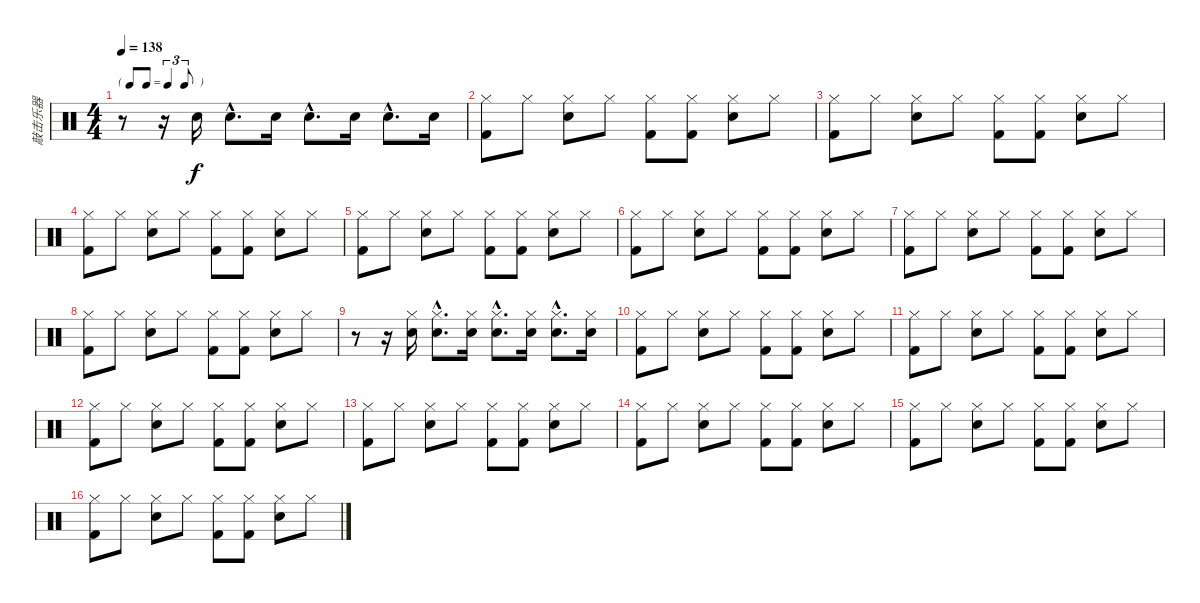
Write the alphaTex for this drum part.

\track ("敲击乐器" "敲击乐器") {instrument percussion}
\staff {score}
\articulation defaults
\ts (4 4)
\tf triplet8th
\tempo 138
\clef neutral
\ks c
r.8{dy f} r.16 "Electric Snare (hit)".16 "Electric Snare (hit)"{hac}.8{d} "Electric Snare (hit)".16 "Electric Snare (hit)"{hac}.8{d} "Electric Snare (hit)".16 "Electric Snare (hit)"{hac}.8{d} "Electric Snare (hit)".16 |
("Hi-Hat (closed)" "Kick (hit) 2").8 "Hi-Hat (closed)".8 ("Hi-Hat (closed)" "Electric Snare (hit)").8 "Hi-Hat (closed)".8 ("Hi-Hat (closed)" "Kick (hit) 2").8 ("Hi-Hat (closed)" "Kick (hit) 2").8 ("Hi-Hat (closed)" "Electric Snare (hit)").8 "Hi-Hat (closed)".8 |
("Hi-Hat (closed)" "Kick (hit) 2").8 "Hi-Hat (closed)".8 ("Hi-Hat (closed)" "Electric Snare (hit)").8 "Hi-Hat (closed)".8 ("Hi-Hat (closed)" "Kick (hit) 2").8 ("Hi-Hat (closed)" "Kick (hit) 2").8 ("Hi-Hat (closed)" "Electric Snare (hit)").8 "Hi-Hat (closed)".8 |
("Hi-Hat (closed)" "Kick (hit) 2").8 "Hi-Hat (closed)".8 ("Hi-Hat (closed)" "Electric Snare (hit)").8 "Hi-Hat (closed)".8 ("Hi-Hat (closed)" "Kick (hit) 2").8 ("Hi-Hat (closed)" "Kick (hit) 2").8 ("Hi-Hat (closed)" "Electric Snare (hit)").8 "Hi-Hat (closed)".8 |
("Hi-Hat (closed)" "Kick (hit) 2").8 "Hi-Hat (closed)".8 ("Hi-Hat (closed)" "Electric Snare (hit)").8 "Hi-Hat (closed)".8 ("Hi-Hat (closed)" "Kick (hit) 2").8 ("Hi-Hat (closed)" "Kick (hit) 2").8 ("Hi-Hat (closed)" "Electric Snare (hit)").8 "Hi-Hat (closed)".8 |
("Hi-Hat (closed)" "Kick (hit) 2").8 "Hi-Hat (closed)".8 ("Hi-Hat (closed)" "Electric Snare (hit)").8 "Hi-Hat (closed)".8 ("Hi-Hat (closed)" "Kick (hit) 2").8 ("Hi-Hat (closed)" "Kick (hit) 2").8 ("Hi-Hat (closed)" "Electric Snare (hit)").8 "Hi-Hat (closed)".8 |
("Hi-Hat (closed)" "Kick (hit) 2").8 "Hi-Hat (closed)".8 ("Hi-Hat (closed)" "Electric Snare (hit)").8 "Hi-Hat (closed)".8 ("Hi-Hat (closed)" "Kick (hit) 2").8 ("Hi-Hat (closed)" "Kick (hit) 2").8 ("Hi-Hat (closed)" "Electric Snare (hit)").8 "Hi-Hat (closed)".8 |
("Hi-Hat (closed)" "Kick (hit) 2").8 "Hi-Hat (closed)".8 ("Hi-Hat (closed)" "Electric Snare (hit)").8 "Hi-Hat (closed)".8 ("Hi-Hat (closed)" "Kick (hit) 2").8 ("Hi-Hat (closed)" "Kick (hit) 2").8 ("Hi-Hat (closed)" "Electric Snare (hit)").8 "Hi-Hat (closed)".8 |
r.8 r.16 ("Hi-Hat (closed)" "Electric Snare (hit)").16 ("Hi-Hat (closed)"{hac} "Electric Snare (hit)"{hac}).8{d} ("Hi-Hat (closed)" "Electric Snare (hit)").16 ("Hi-Hat (closed)"{hac} "Electric Snare (hit)"{hac}).8{d} ("Hi-Hat (closed)" "Electric Snare (hit)").16 ("Hi-Hat (closed)"{hac} "Electric Snare (hit)"{hac}).8{d} ("Hi-Hat (closed)" "Electric Snare (hit)").16 |
("Hi-Hat (closed)" "Kick (hit) 2").8 "Hi-Hat (closed)".8 ("Hi-Hat (closed)" "Electric Snare (hit)").8 "Hi-Hat (closed)".8 ("Hi-Hat (closed)" "Kick (hit) 2").8 ("Hi-Hat (closed)" "Kick (hit) 2").8 ("Hi-Hat (closed)" "Electric Snare (hit)").8 "Hi-Hat (closed)".8 |
("Hi-Hat (closed)" "Kick (hit) 2").8 "Hi-Hat (closed)".8 ("Hi-Hat (closed)" "Electric Snare (hit)").8 "Hi-Hat (closed)".8 ("Hi-Hat (closed)" "Kick (hit) 2").8 ("Hi-Hat (closed)" "Kick (hit) 2").8 ("Hi-Hat (closed)" "Electric Snare (hit)").8 "Hi-Hat (closed)".8 |
("Hi-Hat (closed)" "Kick (hit) 2").8 "Hi-Hat (closed)".8 ("Hi-Hat (closed)" "Electric Snare (hit)").8 "Hi-Hat (closed)".8 ("Hi-Hat (closed)" "Kick (hit) 2").8 ("Hi-Hat (closed)" "Kick (hit) 2").8 ("Hi-Hat (closed)" "Electric Snare (hit)").8 "Hi-Hat (closed)".8 |
("Hi-Hat (closed)" "Kick (hit) 2").8 "Hi-Hat (closed)".8 ("Hi-Hat (closed)" "Electric Snare (hit)").8 "Hi-Hat (closed)".8 ("Hi-Hat (closed)" "Kick (hit) 2").8 ("Hi-Hat (closed)" "Kick (hit) 2").8 ("Hi-Hat (closed)" "Electric Snare (hit)").8 "Hi-Hat (closed)".8 |
("Hi-Hat (closed)" "Kick (hit) 2").8 "Hi-Hat (closed)".8 ("Hi-Hat (closed)" "Electric Snare (hit)").8 "Hi-Hat (closed)".8 ("Hi-Hat (closed)" "Kick (hit) 2").8 ("Hi-Hat (closed)" "Kick (hit) 2").8 ("Hi-Hat (closed)" "Electric Snare (hit)").8 "Hi-Hat (closed)".8 |
("Hi-Hat (closed)" "Kick (hit) 2").8 "Hi-Hat (closed)".8 ("Hi-Hat (closed)" "Electric Snare (hit)").8 "Hi-Hat (closed)".8 ("Hi-Hat (closed)" "Kick (hit) 2").8 ("Hi-Hat (closed)" "Kick (hit) 2").8 ("Hi-Hat (closed)" "Electric Snare (hit)").8 "Hi-Hat (closed)".8 |
("Hi-Hat (closed)" "Kick (hit) 2").8 "Hi-Hat (closed)".8 ("Hi-Hat (closed)" "Electric Snare (hit)").8 "Hi-Hat (closed)".8 ("Hi-Hat (closed)" "Kick (hit) 2").8 ("Hi-Hat (closed)" "Kick (hit) 2").8 ("Hi-Hat (closed)" "Electric Snare (hit)").8 "Hi-Hat (closed)".8
